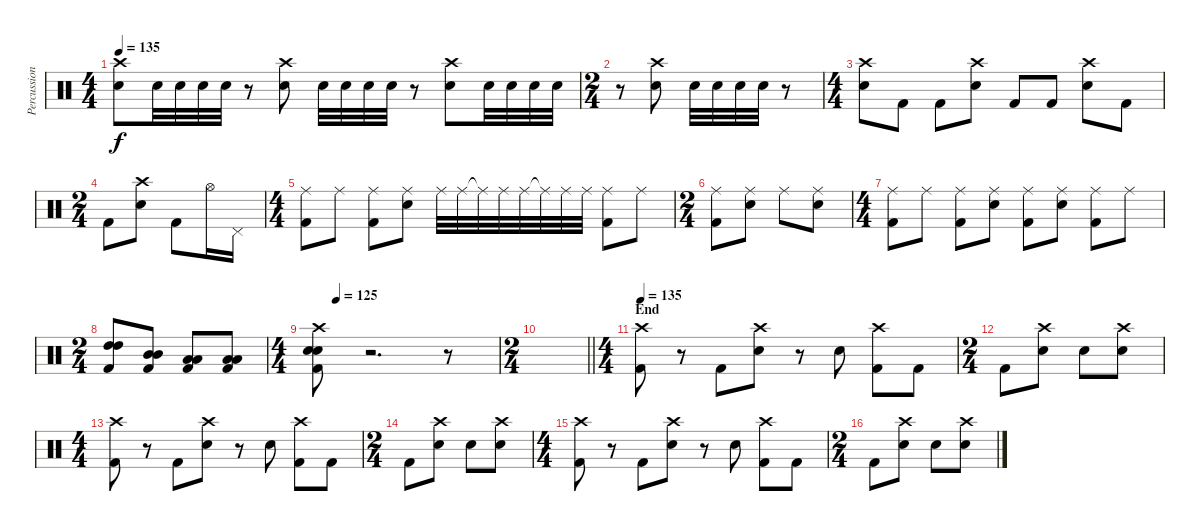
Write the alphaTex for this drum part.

\track ("Percussion" "Percussion") {instrument percussion}
\staff {score}
\articulation defaults
\ts (4 4)
\tempo 135
\clef neutral
\ks c
("Crash high (hit)" "Electric Snare (hit)").8{dy f} "Electric Snare (hit)".32 "Electric Snare (hit)".32 "Electric Snare (hit)".32 "Electric Snare (hit)".32 r.8 ("Crash high (hit)" "Electric Snare (hit)").8 "Electric Snare (hit)".32 "Electric Snare (hit)".32 "Electric Snare (hit)".32 "Electric Snare (hit)".32 r.8 ("Crash high (hit)" "Electric Snare (hit)").8 "Electric Snare (hit)".32 "Electric Snare (hit)".32 "Electric Snare (hit)".32 "Electric Snare (hit)".32 |
\ts (2 4)
r.8 ("Crash high (hit)" "Electric Snare (hit)").8 "Electric Snare (hit)".32 "Electric Snare (hit)".32 "Electric Snare (hit)".32 "Electric Snare (hit)".32 r.8 |
\ts (4 4)
("Crash high (hit)" "Electric Snare (hit)").8 "Kick (hit) 2".8 "Kick (hit) 2".8 ("Crash high (hit)" "Electric Snare (hit)").8 "Kick (hit) 2".8 "Kick (hit) 2".8 ("Crash high (hit)" "Electric Snare (hit)").8 "Kick (hit) 2".8 |
\ts (2 4)
"Kick (hit) 2".8 ("Crash high (hit)" "Electric Snare (hit)").8 "Kick (hit) 2".8 "Hi-Hat (open)".16 "Pedal Hi-Hat (hit)".16 |
\ts (4 4)
("Ride (middle)" "Kick (hit) 2").8 "Ride (middle)".8 ("Ride (middle)" "Kick (hit) 2").8 ("Ride (middle)" "Electric Snare (hit)").8 "Ride (middle)".32 "Ride (middle)".32 "Ride (middle)"{t}.32 "Ride (middle)".32 "Ride (middle)".32 "Ride (middle)"{t}.32 "Ride (middle)".32 "Ride (middle)".32 ("Ride (middle)" "Kick (hit) 2").8 "Ride (middle)".8 |
\ts (2 4)
("Ride (middle)" "Kick (hit) 2").8 ("Ride (middle)" "Electric Snare (hit)").8 "Ride (middle)".8 ("Ride (middle)" "Electric Snare (hit)").8 |
\ts (4 4)
("Ride (middle)" "Kick (hit) 2").8 "Ride (middle)".8 ("Ride (middle)" "Kick (hit) 2").8 ("Ride (middle)" "Electric Snare (hit)").8 ("Ride (middle)" "Kick (hit) 2").8 ("Ride (middle)" "Electric Snare (hit)").8 ("Ride (middle)" "Kick (hit) 2").8 "Ride (middle)".8 |
\ts (2 4)
("High Tom (hit)" "High Tom (hit)" "Kick (hit) 2").8 ("Mid Tom (hit)" "Mid Tom (hit)" "Kick (hit) 2").8 ("Low Tom (hit)" "Low Tom (hit)" "Kick (hit) 2").8 ("Low Floor Tom (hit)" "Low Floor Tom (hit)" "Kick (hit) 2").8 |
\ts (4 4)
\tempo (125 0.125)
("Crash high (hit)" "Electric Snare (hit)" "Electric Snare (hit)" "Kick (hit) 2").8 r.2{d} r.8 |
\ts (2 4)
\barLineRight lightlight
|
\ts (4 4)
\section ("" "End")
\tempo 135
("Crash high (hit)" "Kick (hit) 2").8 r.8 "Kick (hit) 2".8 ("Crash high (hit)" "Electric Snare (hit)").8 r.8 "Electric Snare (hit)".8 ("Crash high (hit)" "Kick (hit) 2").8 "Kick (hit) 2".8 |
\ts (2 4)
"Kick (hit) 2".8 ("Crash high (hit)" "Electric Snare (hit)").8 "Electric Snare (hit)".8 ("Crash high (hit)" "Electric Snare (hit)").8 |
\ts (4 4)
("Crash high (hit)" "Kick (hit) 2").8 r.8 "Kick (hit) 2".8 ("Crash high (hit)" "Electric Snare (hit)").8 r.8 "Electric Snare (hit)".8 ("Crash high (hit)" "Kick (hit) 2").8 "Kick (hit) 2".8 |
\ts (2 4)
"Kick (hit) 2".8 ("Crash high (hit)" "Electric Snare (hit)").8 "Electric Snare (hit)".8 ("Crash high (hit)" "Electric Snare (hit)").8 |
\ts (4 4)
("Crash high (hit)" "Kick (hit) 2").8 r.8 "Kick (hit) 2".8 ("Crash high (hit)" "Electric Snare (hit)").8 r.8 "Electric Snare (hit)".8 ("Crash high (hit)" "Kick (hit) 2").8 "Kick (hit) 2".8 |
\ts (2 4)
"Kick (hit) 2".8 ("Crash high (hit)" "Electric Snare (hit)").8 "Electric Snare (hit)".8 ("Crash high (hit)" "Electric Snare (hit)").8
